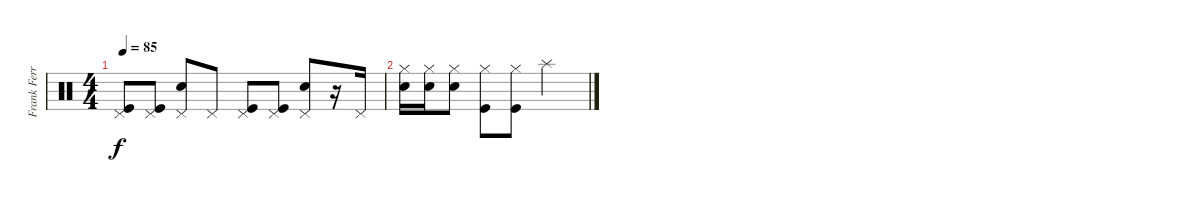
\track ("Frank Ferrer" "Frank Ferr") {instrument percussion}
\staff {score}
\articulation defaults
\ts (4 4)
\tempo 85
\clef neutral
\ks c
("Kick (hit)" "Pedal Hi-Hat (hit)").8{dy f} ("Kick (hit)" "Pedal Hi-Hat (hit)").8 ("Snare (hit) 2" "Pedal Hi-Hat (hit)").8 "Pedal Hi-Hat (hit)".8 ("Kick (hit)" "Pedal Hi-Hat (hit)").8 ("Kick (hit)" "Pedal Hi-Hat (hit)").8 ("Snare (hit) 2" "Pedal Hi-Hat (hit)").8 r.16 "Pedal Hi-Hat (hit)".16 |
("Snare (hit) 2" "Hi-Hat (closed)").16 ("Snare (hit) 2" "Hi-Hat (closed)").16 ("Snare (hit) 2" "Hi-Hat (closed)").8 ("Kick (hit)" "Hi-Hat (closed)").8 ("Kick (hit)" "Hi-Hat (closed)").8 "Splash (hit)".2
